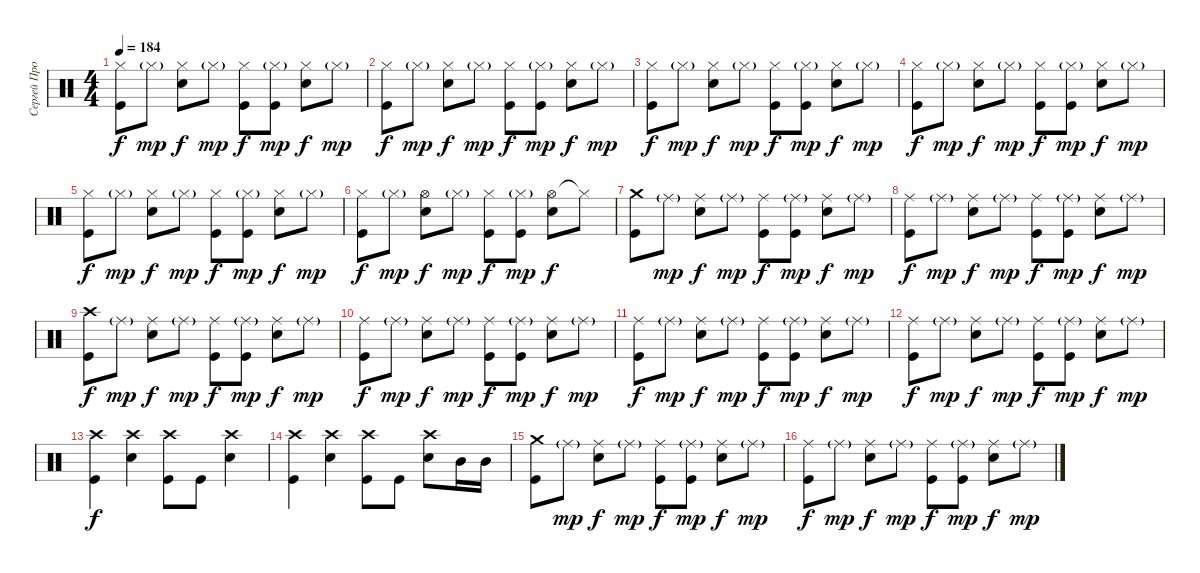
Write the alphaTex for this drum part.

\track ("Сергей Прокофьев" "Сергей Про") {instrument percussion}
\staff {score}
\articulation defaults
\ts (4 4)
\tempo 184
\clef neutral
\ks c
("Hi-Hat (closed)" "Kick (hit)").8{dy f} "Hi-Hat (closed)"{g}.8{dy mp} ("Hi-Hat (closed)" "Electric Snare (hit)").8{dy f} "Hi-Hat (closed)"{g}.8{dy mp} ("Hi-Hat (closed)" "Kick (hit)").8{dy f} ("Hi-Hat (closed)"{g} "Kick (hit)").8{dy mp} ("Hi-Hat (closed)" "Electric Snare (hit)").8{dy f} "Hi-Hat (closed)"{g}.8{dy mp} |
("Hi-Hat (closed)" "Kick (hit)").8{dy f} "Hi-Hat (closed)"{g}.8{dy mp} ("Hi-Hat (closed)" "Electric Snare (hit)").8{dy f} "Hi-Hat (closed)"{g}.8{dy mp} ("Hi-Hat (closed)" "Kick (hit)").8{dy f} ("Hi-Hat (closed)"{g} "Kick (hit)").8{dy mp} ("Hi-Hat (closed)" "Electric Snare (hit)").8{dy f} "Hi-Hat (closed)"{g}.8{dy mp} |
("Hi-Hat (closed)" "Kick (hit)").8{dy f} "Hi-Hat (closed)"{g}.8{dy mp} ("Hi-Hat (closed)" "Electric Snare (hit)").8{dy f} "Hi-Hat (closed)"{g}.8{dy mp} ("Hi-Hat (closed)" "Kick (hit)").8{dy f} ("Hi-Hat (closed)"{g} "Kick (hit)").8{dy mp} ("Hi-Hat (closed)" "Electric Snare (hit)").8{dy f} "Hi-Hat (closed)"{g}.8{dy mp} |
("Hi-Hat (closed)" "Kick (hit)").8{dy f} "Hi-Hat (closed)"{g}.8{dy mp} ("Hi-Hat (closed)" "Electric Snare (hit)").8{dy f} "Hi-Hat (closed)"{g}.8{dy mp} ("Hi-Hat (closed)" "Kick (hit)").8{dy f} ("Hi-Hat (closed)"{g} "Kick (hit)").8{dy mp} ("Hi-Hat (closed)" "Electric Snare (hit)").8{dy f} "Hi-Hat (closed)"{g}.8{dy mp} |
("Hi-Hat (closed)" "Kick (hit)").8{dy f} "Hi-Hat (closed)"{g}.8{dy mp} ("Hi-Hat (closed)" "Electric Snare (hit)").8{dy f} "Hi-Hat (closed)"{g}.8{dy mp} ("Hi-Hat (closed)" "Kick (hit)").8{dy f} ("Hi-Hat (closed)"{g} "Kick (hit)").8{dy mp} ("Hi-Hat (closed)" "Electric Snare (hit)").8{dy f} "Hi-Hat (closed)"{g}.8{dy mp} |
("Hi-Hat (closed)" "Kick (hit)").8{dy f} "Hi-Hat (closed)"{g}.8{dy mp} ("Hi-Hat (open)" "Electric Snare (hit)").8{dy f} "Hi-Hat (closed)"{g}.8{dy mp} ("Hi-Hat (closed)" "Kick (hit)").8{dy f} ("Hi-Hat (closed)"{g} "Kick (hit)").8{dy mp} ("Hi-Hat (open)" "Electric Snare (hit)").8{dy f} "Hi-Hat (closed)"{t}.8 |
("Crash medium (hit)" "Kick (hit)").8 "Ride (middle)"{g}.8{dy mp} ("Ride (middle)" "Electric Snare (hit)").8{dy f} "Ride (middle)"{g}.8{dy mp} ("Ride (middle)" "Kick (hit)").8{dy f} ("Ride (middle)"{g} "Kick (hit)").8{dy mp} ("Ride (middle)" "Electric Snare (hit)").8{dy f} "Ride (middle)"{g}.8{dy mp} |
("Ride (middle)" "Kick (hit)").8{dy f} "Ride (middle)"{g}.8{dy mp} ("Ride (middle)" "Electric Snare (hit)").8{dy f} "Ride (middle)"{g}.8{dy mp} ("Ride (middle)" "Kick (hit)").8{dy f} ("Ride (middle)"{g} "Kick (hit)").8{dy mp} ("Ride (middle)" "Electric Snare (hit)").8{dy f} "Ride (middle)"{g}.8{dy mp} |
("Crash high (hit)" "Kick (hit)").8{dy f} "Ride (middle)"{g}.8{dy mp} ("Ride (middle)" "Electric Snare (hit)").8{dy f} "Ride (middle)"{g}.8{dy mp} ("Ride (middle)" "Kick (hit)").8{dy f} ("Ride (middle)"{g} "Kick (hit)").8{dy mp} ("Ride (middle)" "Electric Snare (hit)").8{dy f} "Ride (middle)"{g}.8{dy mp} |
("Ride (middle)" "Kick (hit)").8{dy f} "Ride (middle)"{g}.8{dy mp} ("Ride (middle)" "Electric Snare (hit)").8{dy f} "Ride (middle)"{g}.8{dy mp} ("Ride (middle)" "Kick (hit)").8{dy f} ("Ride (middle)"{g} "Kick (hit)").8{dy mp} ("Ride (middle)" "Electric Snare (hit)").8{dy f} "Ride (middle)"{g}.8{dy mp} |
("Ride (middle)" "Kick (hit)").8{dy f} "Ride (middle)"{g}.8{dy mp} ("Ride (middle)" "Electric Snare (hit)").8{dy f} "Ride (middle)"{g}.8{dy mp} ("Ride (middle)" "Kick (hit)").8{dy f} ("Ride (middle)"{g} "Kick (hit)").8{dy mp} ("Ride (middle)" "Electric Snare (hit)").8{dy f} "Ride (middle)"{g}.8{dy mp} |
("Ride (middle)" "Kick (hit)").8{dy f} "Ride (middle)"{g}.8{dy mp} ("Ride (middle)" "Electric Snare (hit)").8{dy f} "Ride (middle)"{g}.8{dy mp} ("Ride (middle)" "Kick (hit)").8{dy f} ("Ride (middle)"{g} "Kick (hit)").8{dy mp} ("Ride (middle)" "Electric Snare (hit)").8{dy f} "Ride (middle)"{g}.8{dy mp} |
("Crash high (hit)" "Kick (hit)").4{dy f} ("Crash high (hit)" "Electric Snare (hit)").4 ("Crash high (hit)" "Kick (hit)").8 "Kick (hit)".8 ("Crash high (hit)" "Electric Snare (hit)").4 |
("Crash high (hit)" "Kick (hit)").4 ("Crash high (hit)" "Electric Snare (hit)").4 ("Crash high (hit)" "Kick (hit)").8 "Kick (hit)".8 ("Crash high (hit)" "Electric Snare (hit)").8 "Mid Tom (hit)".16 "Mid Tom (hit)".16 |
("Crash medium (hit)" "Kick (hit)").8 "Ride (middle)"{g}.8{dy mp} ("Ride (middle)" "Electric Snare (hit)").8{dy f} "Ride (middle)"{g}.8{dy mp} ("Ride (middle)" "Kick (hit)").8{dy f} ("Ride (middle)"{g} "Kick (hit)").8{dy mp} ("Ride (middle)" "Electric Snare (hit)").8{dy f} "Ride (middle)"{g}.8{dy mp} |
("Ride (middle)" "Kick (hit)").8{dy f} "Ride (middle)"{g}.8{dy mp} ("Ride (middle)" "Electric Snare (hit)").8{dy f} "Ride (middle)"{g}.8{dy mp} ("Ride (middle)" "Kick (hit)").8{dy f} ("Ride (middle)"{g} "Kick (hit)").8{dy mp} ("Ride (middle)" "Electric Snare (hit)").8{dy f} "Ride (middle)"{g}.8{dy mp}
